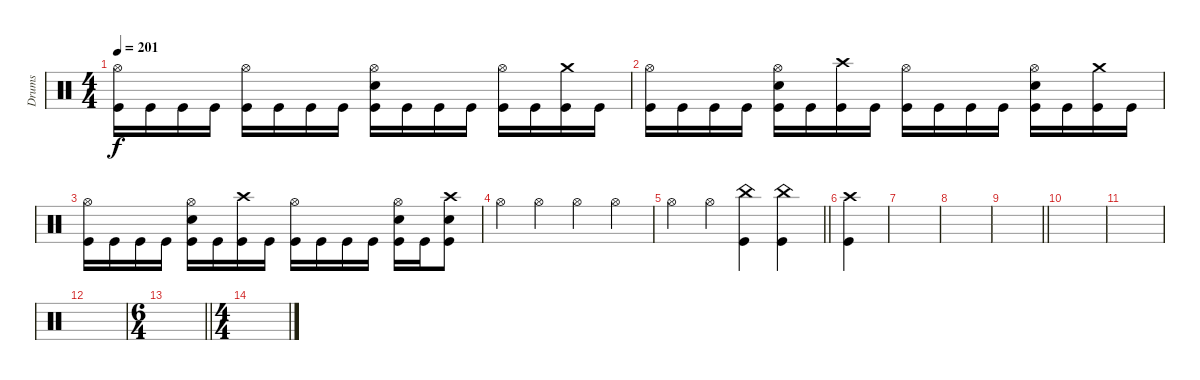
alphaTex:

\track ("Drums" "Drums") {instrument percussion}
\staff
\articulation defaults
\ts (4 4)
\tempo 201
\clef neutral
\ks c
("Hi-Hat (open)" "Kick (hit)").16{dy f} "Kick (hit)".16 "Kick (hit)".16 "Kick (hit)".16 ("Hi-Hat (open)" "Kick (hit)").16 "Kick (hit)".16 "Kick (hit)".16 "Kick (hit)".16 ("Hi-Hat (open)" "Electric Snare (hit)" "Kick (hit)").16 "Kick (hit)".16 "Kick (hit)".16 "Kick (hit)".16 ("Hi-Hat (open)" "Kick (hit)").16 "Kick (hit)".16 ("Crash medium (hit)" "Kick (hit)").16 "Kick (hit)".16 |
("Hi-Hat (open)" "Kick (hit)").16 "Kick (hit)".16 "Kick (hit)".16 "Kick (hit)".16 ("Hi-Hat (open)" "Electric Snare (hit)" "Kick (hit)").16 "Kick (hit)".16 ("Crash high (hit)" "Kick (hit)").16 "Kick (hit)".16 ("Hi-Hat (open)" "Kick (hit)").16 "Kick (hit)".16 "Kick (hit)".16 "Kick (hit)".16 ("Hi-Hat (open)" "Electric Snare (hit)" "Kick (hit)").16 "Kick (hit)".16 ("Crash medium (hit)" "Kick (hit)").16 "Kick (hit)".16 |
("Hi-Hat (open)" "Kick (hit)").16 "Kick (hit)".16 "Kick (hit)".16 "Kick (hit)".16 ("Hi-Hat (open)" "Electric Snare (hit)" "Kick (hit)").16 "Kick (hit)".16 ("Crash high (hit)" "Kick (hit)").16 "Kick (hit)".16 ("Hi-Hat (open)" "Kick (hit)").16 "Kick (hit)".16 "Kick (hit)".16 "Kick (hit)".16 ("Hi-Hat (open)" "Electric Snare (hit)" "Kick (hit)").16 "Kick (hit)".16 ("Crash high (hit)" "Electric Snare (hit)" "Kick (hit)").8 |
"Hi-Hat (open)".4 "Hi-Hat (open)".4 "Hi-Hat (open)".4 "Hi-Hat (open)".4 |
\barLineRight lightlight "Hi-Hat (open)".4 "Hi-Hat (open)".4
("China (hit)" "Kick (hit)").4 ("China (hit)" "Kick (hit)").4 |
\section ("" "")
("Crash high (hit)" "Kick (hit)").4 |
|
|
\barLineRight lightlight
|
|
|
|
\ts (6 4)
\barLineRight lightlight
|
\ts (4 4)
